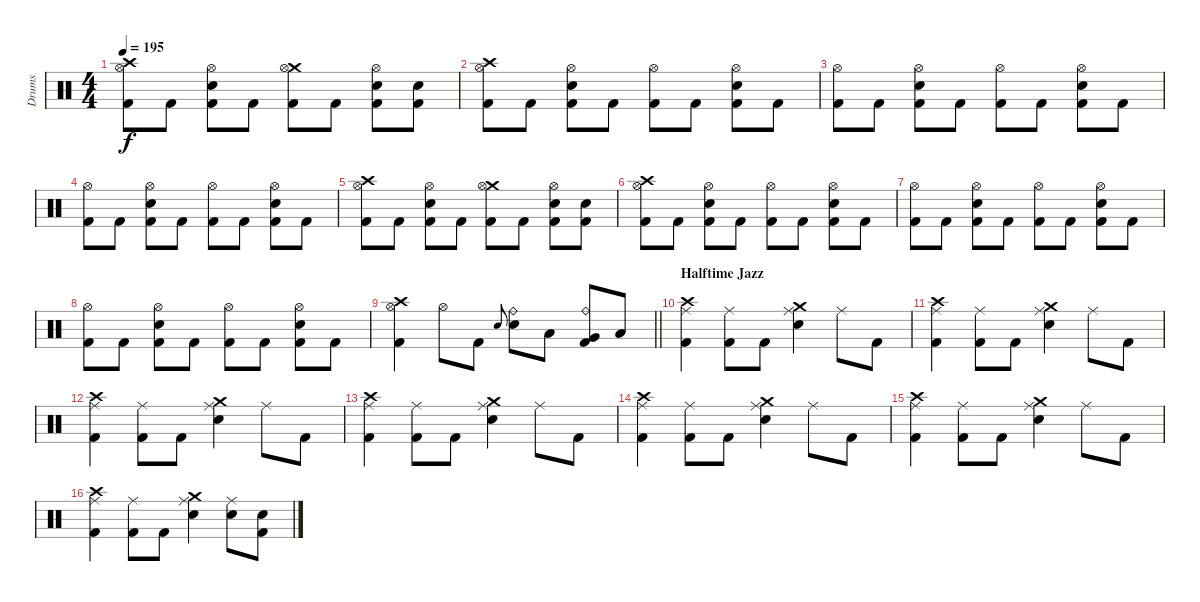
\track ("Drums" "Drums") {instrument percussion}
\staff {score}
\articulation defaults
\ts (4 4)
\tempo 195
\clef neutral
\ks c
("Crash high (hit)" "Hi-Hat (open)" "Kick (hit) 2").8{dy f} "Kick (hit) 2".8 ("Hi-Hat (open)" "Snare (hit) 2" "Kick (hit) 2").8 "Kick (hit) 2".8 ("Crash medium (hit)" "Hi-Hat (open)" "Kick (hit) 2").8 "Kick (hit) 2".8 ("Hi-Hat (open)" "Snare (hit) 2" "Kick (hit) 2").8 ("Snare (hit) 2" "Kick (hit) 2").8 |
("Crash high (hit)" "Hi-Hat (open)" "Kick (hit) 2").8 "Kick (hit) 2".8 ("Hi-Hat (open)" "Snare (hit) 2" "Kick (hit) 2").8 "Kick (hit) 2".8 ("Hi-Hat (open)" "Kick (hit) 2").8 "Kick (hit) 2".8 ("Hi-Hat (open)" "Snare (hit) 2" "Kick (hit) 2").8 "Kick (hit) 2".8 |
("Hi-Hat (open)" "Kick (hit) 2").8 "Kick (hit) 2".8 ("Hi-Hat (open)" "Snare (hit) 2" "Kick (hit) 2").8 "Kick (hit) 2".8 ("Hi-Hat (open)" "Kick (hit) 2").8 "Kick (hit) 2".8 ("Hi-Hat (open)" "Snare (hit) 2" "Kick (hit) 2").8 "Kick (hit) 2".8 |
("Hi-Hat (open)" "Kick (hit) 2").8 "Kick (hit) 2".8 ("Hi-Hat (open)" "Snare (hit) 2" "Kick (hit) 2").8 "Kick (hit) 2".8 ("Hi-Hat (open)" "Kick (hit) 2").8 "Kick (hit) 2".8 ("Hi-Hat (open)" "Snare (hit) 2" "Kick (hit) 2").8 "Kick (hit) 2".8 |
("Crash high (hit)" "Hi-Hat (open)" "Kick (hit) 2").8 "Kick (hit) 2".8 ("Hi-Hat (open)" "Snare (hit) 2" "Kick (hit) 2").8 "Kick (hit) 2".8 ("Crash medium (hit)" "Hi-Hat (open)" "Kick (hit) 2").8 "Kick (hit) 2".8 ("Hi-Hat (open)" "Snare (hit) 2" "Kick (hit) 2").8 ("Snare (hit) 2" "Kick (hit) 2").8 |
("Crash high (hit)" "Hi-Hat (open)" "Kick (hit) 2").8 "Kick (hit) 2".8 ("Hi-Hat (open)" "Snare (hit) 2" "Kick (hit) 2").8 "Kick (hit) 2".8 ("Hi-Hat (open)" "Kick (hit) 2").8 "Kick (hit) 2".8 ("Hi-Hat (open)" "Snare (hit) 2" "Kick (hit) 2").8 "Kick (hit) 2".8 |
("Hi-Hat (open)" "Kick (hit) 2").8 "Kick (hit) 2".8 ("Hi-Hat (open)" "Snare (hit) 2" "Kick (hit) 2").8 "Kick (hit) 2".8 ("Hi-Hat (open)" "Kick (hit) 2").8 "Kick (hit) 2".8 ("Hi-Hat (open)" "Snare (hit) 2" "Kick (hit) 2").8 "Kick (hit) 2".8 |
("Hi-Hat (open)" "Kick (hit) 2").8 "Kick (hit) 2".8 ("Hi-Hat (open)" "Snare (hit) 2" "Kick (hit) 2").8 "Kick (hit) 2".8 ("Hi-Hat (open)" "Kick (hit) 2").8 "Kick (hit) 2".8 ("Hi-Hat (open)" "Snare (hit) 2" "Kick (hit) 2").8 "Kick (hit) 2".8 |
\barLineRight lightlight
("Crash high (hit)" "Hi-Hat (open)" "Kick (hit) 2").4 "Hi-Hat (open)".8 "Kick (hit) 2".8 "Snare (hit) 2".8{gr onbeat} ("Ride (bell)" "Snare (hit) 2").8 "Low Tom (hit)".8 ("Ride (bell)" "Very Low Tom (hit)" "Kick (hit) 2").8 "Low Floor Tom (hit)".8 |
\section ("" "Halftime Jazz")
("Crash high (hit)" "Ride (middle)" "Kick (hit) 2").4 ("Ride (middle)" "Kick (hit) 2").8 "Kick (hit) 2".8 ("Crash medium (hit)" "Ride (middle)" "Snare (hit) 2").4 "Ride (middle)".8 "Kick (hit) 2".8 |
("Crash high (hit)" "Ride (middle)" "Kick (hit) 2").4 ("Ride (middle)" "Kick (hit) 2").8 "Kick (hit) 2".8 ("Crash medium (hit)" "Ride (middle)" "Snare (hit) 2").4 "Ride (middle)".8 "Kick (hit) 2".8 |
("Crash high (hit)" "Ride (middle)" "Kick (hit) 2").4 ("Ride (middle)" "Kick (hit) 2").8 "Kick (hit) 2".8 ("Crash medium (hit)" "Ride (middle)" "Snare (hit) 2").4 "Ride (middle)".8 "Kick (hit) 2".8 |
("Crash high (hit)" "Ride (middle)" "Kick (hit) 2").4 ("Ride (middle)" "Kick (hit) 2").8 "Kick (hit) 2".8 ("Crash medium (hit)" "Ride (middle)" "Snare (hit) 2").4 "Ride (middle)".8 "Kick (hit) 2".8 |
("Crash high (hit)" "Ride (middle)" "Kick (hit) 2").4 ("Ride (middle)" "Kick (hit) 2").8 "Kick (hit) 2".8 ("Crash medium (hit)" "Ride (middle)" "Snare (hit) 2").4 "Ride (middle)".8 "Kick (hit) 2".8 |
("Crash high (hit)" "Ride (middle)" "Kick (hit) 2").4 ("Ride (middle)" "Kick (hit) 2").8 "Kick (hit) 2".8 ("Crash medium (hit)" "Ride (middle)" "Snare (hit) 2").4 "Ride (middle)".8 "Kick (hit) 2".8 |
("Crash high (hit)" "Ride (middle)" "Kick (hit) 2").4 ("Ride (middle)" "Kick (hit) 2").8 "Kick (hit) 2".8 ("Crash medium (hit)" "Ride (middle)" "Snare (hit) 2").4 ("Ride (middle)" "Snare (hit) 2").8 ("Snare (hit) 2" "Kick (hit) 2").8
